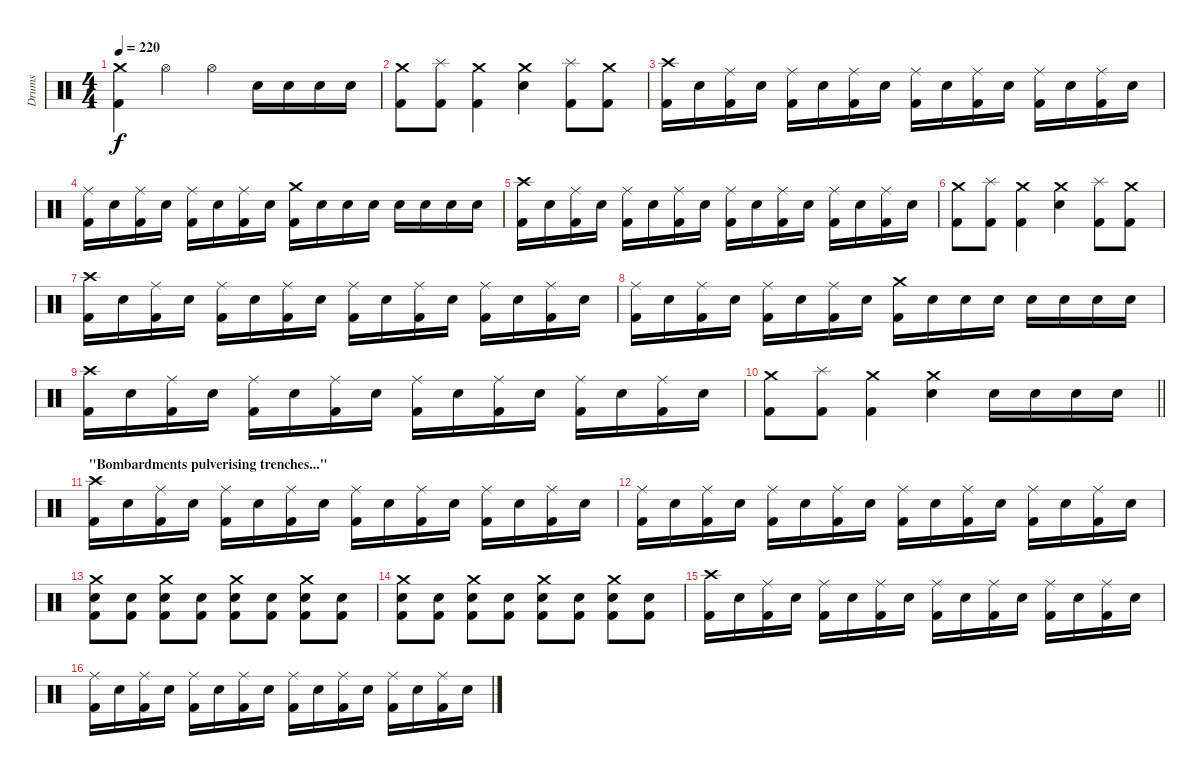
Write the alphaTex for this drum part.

\track ("Drums" "Drums") {instrument percussion}
\staff {score}
\articulation defaults
\ts (4 4)
\tempo 220
\clef neutral
\ks c
("Crash medium (hit)" "Kick (hit) 2").4{dy f} "Hi-Hat (open)".4 "Hi-Hat (open)".4 "Electric Snare (hit)".16 "Electric Snare (hit)".16 "Electric Snare (hit)".16 "Electric Snare (hit)".16 |
("Crash medium (hit)" "Kick (hit) 2").8 ("Splash (hit)" "Kick (hit) 2").8 ("Crash medium (hit)" "Kick (hit) 2").4 ("Crash medium (hit)" "Electric Snare (hit)").4 ("Splash (hit)" "Kick (hit) 2").8 ("Crash medium (hit)" "Kick (hit) 2").8 |
("Crash high (hit)" "Kick (hit) 2").16 "Electric Snare (hit)".16 ("Ride (middle)" "Kick (hit) 2").16 "Electric Snare (hit)".16 ("Ride (middle)" "Kick (hit) 2").16 "Electric Snare (hit)".16 ("Ride (middle)" "Kick (hit) 2").16 "Electric Snare (hit)".16 ("Ride (middle)" "Kick (hit) 2").16 "Electric Snare (hit)".16 ("Ride (middle)" "Kick (hit) 2").16 "Electric Snare (hit)".16 ("Ride (middle)" "Kick (hit) 2").16 "Electric Snare (hit)".16 ("Ride (middle)" "Kick (hit) 2").16 "Electric Snare (hit)".16 |
("Ride (middle)" "Kick (hit) 2").16 "Electric Snare (hit)".16 ("Ride (middle)" "Kick (hit) 2").16 "Electric Snare (hit)".16 ("Ride (middle)" "Kick (hit) 2").16 "Electric Snare (hit)".16 ("Ride (middle)" "Kick (hit) 2").16 "Electric Snare (hit)".16 ("Crash medium (hit)" "Kick (hit) 2").16 "Electric Snare (hit)".16 "Electric Snare (hit)".16 "Electric Snare (hit)".16 "Electric Snare (hit)".16 "Electric Snare (hit)".16 "Electric Snare (hit)".16 "Electric Snare (hit)".16 |
("Crash high (hit)" "Kick (hit) 2").16 "Electric Snare (hit)".16 ("Ride (middle)" "Kick (hit) 2").16 "Electric Snare (hit)".16 ("Ride (middle)" "Kick (hit) 2").16 "Electric Snare (hit)".16 ("Ride (middle)" "Kick (hit) 2").16 "Electric Snare (hit)".16 ("Ride (middle)" "Kick (hit) 2").16 "Electric Snare (hit)".16 ("Ride (middle)" "Kick (hit) 2").16 "Electric Snare (hit)".16 ("Ride (middle)" "Kick (hit) 2").16 "Electric Snare (hit)".16 ("Ride (middle)" "Kick (hit) 2").16 "Electric Snare (hit)".16 |
("Crash medium (hit)" "Kick (hit) 2").8 ("Splash (hit)" "Kick (hit) 2").8 ("Crash medium (hit)" "Kick (hit) 2").4 ("Crash medium (hit)" "Electric Snare (hit)").4 ("Splash (hit)" "Kick (hit) 2").8 ("Crash medium (hit)" "Kick (hit) 2").8 |
("Crash high (hit)" "Kick (hit) 2").16 "Electric Snare (hit)".16 ("Ride (middle)" "Kick (hit) 2").16 "Electric Snare (hit)".16 ("Ride (middle)" "Kick (hit) 2").16 "Electric Snare (hit)".16 ("Ride (middle)" "Kick (hit) 2").16 "Electric Snare (hit)".16 ("Ride (middle)" "Kick (hit) 2").16 "Electric Snare (hit)".16 ("Ride (middle)" "Kick (hit) 2").16 "Electric Snare (hit)".16 ("Ride (middle)" "Kick (hit) 2").16 "Electric Snare (hit)".16 ("Ride (middle)" "Kick (hit) 2").16 "Electric Snare (hit)".16 |
("Ride (middle)" "Kick (hit) 2").16 "Electric Snare (hit)".16 ("Ride (middle)" "Kick (hit) 2").16 "Electric Snare (hit)".16 ("Ride (middle)" "Kick (hit) 2").16 "Electric Snare (hit)".16 ("Ride (middle)" "Kick (hit) 2").16 "Electric Snare (hit)".16 ("Crash medium (hit)" "Kick (hit) 2").16 "Electric Snare (hit)".16 "Electric Snare (hit)".16 "Electric Snare (hit)".16 "Electric Snare (hit)".16 "Electric Snare (hit)".16 "Electric Snare (hit)".16 "Electric Snare (hit)".16 |
("Crash high (hit)" "Kick (hit) 2").16 "Electric Snare (hit)".16 ("Ride (middle)" "Kick (hit) 2").16 "Electric Snare (hit)".16 ("Ride (middle)" "Kick (hit) 2").16 "Electric Snare (hit)".16 ("Ride (middle)" "Kick (hit) 2").16 "Electric Snare (hit)".16 ("Ride (middle)" "Kick (hit) 2").16 "Electric Snare (hit)".16 ("Ride (middle)" "Kick (hit) 2").16 "Electric Snare (hit)".16 ("Ride (middle)" "Kick (hit) 2").16 "Electric Snare (hit)".16 ("Ride (middle)" "Kick (hit) 2").16 "Electric Snare (hit)".16 |
\barLineRight lightlight
("Crash medium (hit)" "Kick (hit) 2").8 ("Splash (hit)" "Kick (hit) 2").8 ("Crash medium (hit)" "Kick (hit) 2").4 ("Crash medium (hit)" "Electric Snare (hit)").4 "Electric Snare (hit)".16 "Electric Snare (hit)".16 "Electric Snare (hit)".16 "Electric Snare (hit)".16 |
\section ("" "\"Bombardments pulverising trenches...\"")
("Crash high (hit)" "Kick (hit) 2").16 "Electric Snare (hit)".16 ("Ride (middle)" "Kick (hit) 2").16 "Electric Snare (hit)".16 ("Ride (middle)" "Kick (hit) 2").16 "Electric Snare (hit)".16 ("Ride (middle)" "Kick (hit) 2").16 "Electric Snare (hit)".16 ("Ride (middle)" "Kick (hit) 2").16 "Electric Snare (hit)".16 ("Ride (middle)" "Kick (hit) 2").16 "Electric Snare (hit)".16 ("Ride (middle)" "Kick (hit) 2").16 "Electric Snare (hit)".16 ("Ride (middle)" "Kick (hit) 2").16 "Electric Snare (hit)".16 |
("Ride (middle)" "Kick (hit) 2").16 "Electric Snare (hit)".16 ("Ride (middle)" "Kick (hit) 2").16 "Electric Snare (hit)".16 ("Ride (middle)" "Kick (hit) 2").16 "Electric Snare (hit)".16 ("Ride (middle)" "Kick (hit) 2").16 "Electric Snare (hit)".16 ("Ride (middle)" "Kick (hit) 2").16 "Electric Snare (hit)".16 ("Ride (middle)" "Kick (hit) 2").16 "Electric Snare (hit)".16 ("Ride (middle)" "Kick (hit) 2").16 "Electric Snare (hit)".16 ("Ride (middle)" "Kick (hit) 2").16 "Electric Snare (hit)".16 |
("Crash medium (hit)" "Electric Snare (hit)" "Kick (hit) 2").8 ("Electric Snare (hit)" "Kick (hit) 2").8 ("Crash medium (hit)" "Electric Snare (hit)" "Kick (hit) 2").8 ("Electric Snare (hit)" "Kick (hit) 2").8 ("Crash medium (hit)" "Electric Snare (hit)" "Kick (hit) 2").8 ("Electric Snare (hit)" "Kick (hit) 2").8 ("Crash medium (hit)" "Electric Snare (hit)" "Kick (hit) 2").8 ("Electric Snare (hit)" "Kick (hit) 2").8 |
("Crash medium (hit)" "Electric Snare (hit)" "Kick (hit) 2").8 ("Electric Snare (hit)" "Kick (hit) 2").8 ("Crash medium (hit)" "Electric Snare (hit)" "Kick (hit) 2").8 ("Electric Snare (hit)" "Kick (hit) 2").8 ("Crash medium (hit)" "Electric Snare (hit)" "Kick (hit) 2").8 ("Electric Snare (hit)" "Kick (hit) 2").8 ("Crash medium (hit)" "Electric Snare (hit)" "Kick (hit) 2").8 ("Electric Snare (hit)" "Kick (hit) 2").8 |
("Crash high (hit)" "Kick (hit) 2").16 "Electric Snare (hit)".16 ("Ride (middle)" "Kick (hit) 2").16 "Electric Snare (hit)".16 ("Ride (middle)" "Kick (hit) 2").16 "Electric Snare (hit)".16 ("Ride (middle)" "Kick (hit) 2").16 "Electric Snare (hit)".16 ("Ride (middle)" "Kick (hit) 2").16 "Electric Snare (hit)".16 ("Ride (middle)" "Kick (hit) 2").16 "Electric Snare (hit)".16 ("Ride (middle)" "Kick (hit) 2").16 "Electric Snare (hit)".16 ("Ride (middle)" "Kick (hit) 2").16 "Electric Snare (hit)".16 |
("Ride (middle)" "Kick (hit) 2").16 "Electric Snare (hit)".16 ("Ride (middle)" "Kick (hit) 2").16 "Electric Snare (hit)".16 ("Ride (middle)" "Kick (hit) 2").16 "Electric Snare (hit)".16 ("Ride (middle)" "Kick (hit) 2").16 "Electric Snare (hit)".16 ("Ride (middle)" "Kick (hit) 2").16 "Electric Snare (hit)".16 ("Ride (middle)" "Kick (hit) 2").16 "Electric Snare (hit)".16 ("Ride (middle)" "Kick (hit) 2").16 "Electric Snare (hit)".16 ("Ride (middle)" "Kick (hit) 2").16 "Electric Snare (hit)".16
